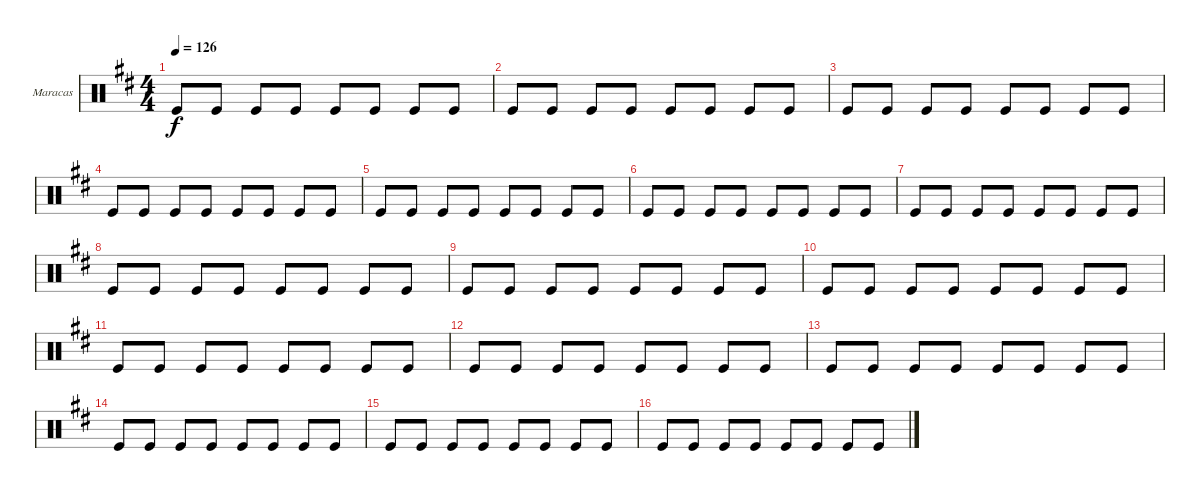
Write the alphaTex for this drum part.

\bracketExtendMode groupsimilarinstruments
\firstSystemTrackNameOrientation horizontal
\otherSystemsTrackNameOrientation horizontal
\track ("Maracas" "Maracas") {instrument percussion}
\staff {score}
\articulation defaults
\ts (4 4)
\tempo 126
\clef neutral
\ks d "Kick (hit)".8{dy f} "Kick (hit)".8 "Kick (hit)".8 "Kick (hit)".8 "Kick (hit)".8 "Kick (hit)".8 "Kick (hit)".8 "Kick (hit)".8
|
"Kick (hit)".8 "Kick (hit)".8 "Kick (hit)".8 "Kick (hit)".8 "Kick (hit)".8 "Kick (hit)".8 "Kick (hit)".8 "Kick (hit)".8 |
"Kick (hit)".8 "Kick (hit)".8 "Kick (hit)".8 "Kick (hit)".8 "Kick (hit)".8 "Kick (hit)".8 "Kick (hit)".8 "Kick (hit)".8 |
"Kick (hit)".8 "Kick (hit)".8 "Kick (hit)".8 "Kick (hit)".8 "Kick (hit)".8 "Kick (hit)".8 "Kick (hit)".8 "Kick (hit)".8 |
"Kick (hit)".8 "Kick (hit)".8 "Kick (hit)".8 "Kick (hit)".8 "Kick (hit)".8 "Kick (hit)".8 "Kick (hit)".8 "Kick (hit)".8 |
"Kick (hit)".8 "Kick (hit)".8 "Kick (hit)".8 "Kick (hit)".8 "Kick (hit)".8 "Kick (hit)".8 "Kick (hit)".8 "Kick (hit)".8 |
\scale
0.394843 "Kick (hit)".8 "Kick (hit)".8 "Kick (hit)".8 "Kick (hit)".8 "Kick (hit)".8 "Kick (hit)".8 "Kick (hit)".8 "Kick (hit)".8 |
\scale
0.335324 "Kick (hit)".8 "Kick (hit)".8 "Kick (hit)".8 "Kick (hit)".8 "Kick (hit)".8 "Kick (hit)".8 "Kick (hit)".8 "Kick (hit)".8 |
\scale
0.270011 "Kick (hit)".8 "Kick (hit)".8 "Kick (hit)".8 "Kick (hit)".8 "Kick (hit)".8 "Kick (hit)".8 "Kick (hit)".8 "Kick (hit)".8 |
"Kick (hit)".8 "Kick (hit)".8 "Kick (hit)".8 "Kick (hit)".8 "Kick (hit)".8 "Kick (hit)".8 "Kick (hit)".8 "Kick (hit)".8 |
"Kick (hit)".8 "Kick (hit)".8 "Kick (hit)".8 "Kick (hit)".8 "Kick (hit)".8 "Kick (hit)".8 "Kick (hit)".8 "Kick (hit)".8 |
\scale
0.416216 "Kick (hit)".8 "Kick (hit)".8 "Kick (hit)".8 "Kick (hit)".8 "Kick (hit)".8 "Kick (hit)".8 "Kick (hit)".8 "Kick (hit)".8 |
\scale
0.274797 "Kick (hit)".8 "Kick (hit)".8 "Kick (hit)".8 "Kick (hit)".8 "Kick (hit)".8 "Kick (hit)".8 "Kick (hit)".8 "Kick (hit)".8 |
\scale
0.308826 "Kick (hit)".8 "Kick (hit)".8 "Kick (hit)".8 "Kick (hit)".8 "Kick (hit)".8 "Kick (hit)".8 "Kick (hit)".8 "Kick (hit)".8 |
"Kick (hit)".8 "Kick (hit)".8 "Kick (hit)".8 "Kick (hit)".8 "Kick (hit)".8 "Kick (hit)".8 "Kick (hit)".8 "Kick (hit)".8 |
"Kick (hit)".8 "Kick (hit)".8 "Kick (hit)".8 "Kick (hit)".8 "Kick (hit)".8 "Kick (hit)".8 "Kick (hit)".8 "Kick (hit)".8
